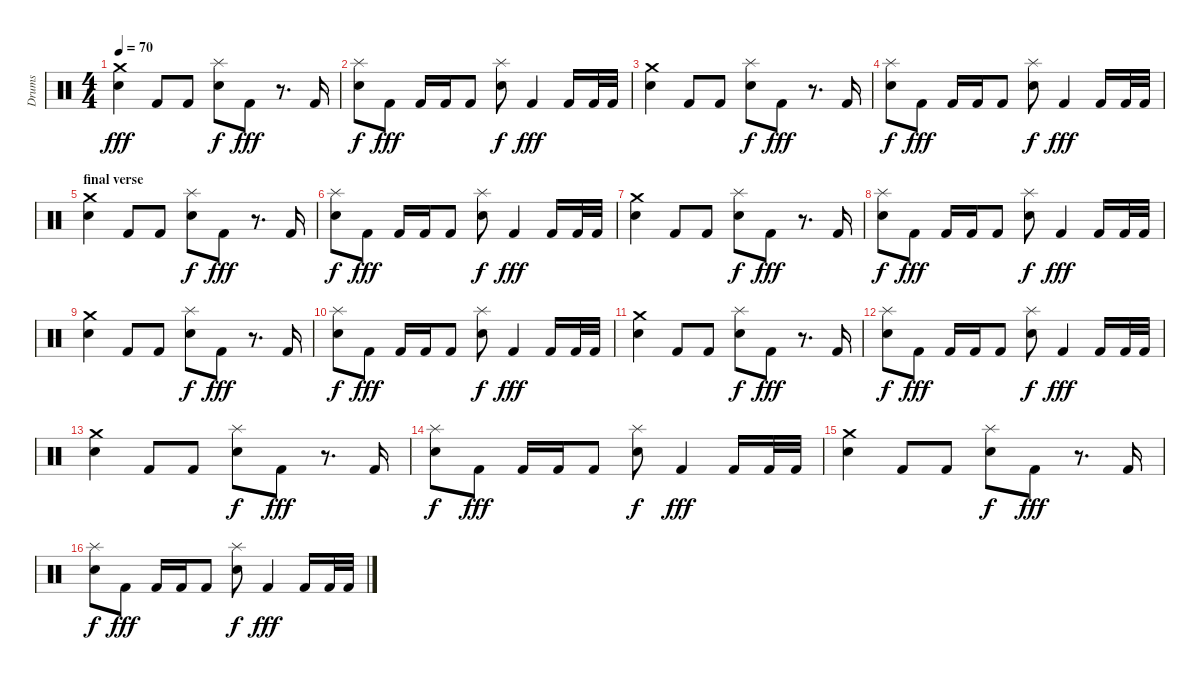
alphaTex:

\track ("Drums" "Drums") {instrument percussion}
\staff {score}
\articulation defaults
\ts (4 4)
\tempo 70
\clef neutral
\ks c
("Electric Snare (hit)" "Crash medium (hit)").4{dy fff} "Kick (hit) 2".8 "Kick (hit) 2".8 ("Electric Snare (hit)" "Splash (hit)").8{dy f} "Kick (hit) 2".8{dy fff} r.8{d} "Kick (hit) 2".16 |
("Splash (hit)" "Electric Snare (hit)").8{dy f} "Kick (hit) 2".8{dy fff} "Kick (hit) 2".16 "Kick (hit) 2".16 "Kick (hit) 2".8 ("Splash (hit)" "Electric Snare (hit)").8{dy f} "Kick (hit) 2".4{dy fff} "Kick (hit) 2".16 "Kick (hit) 2".32 "Kick (hit) 2".32 |
("Electric Snare (hit)" "Crash medium (hit)").4 "Kick (hit) 2".8 "Kick (hit) 2".8 ("Electric Snare (hit)" "Splash (hit)").8{dy f} "Kick (hit) 2".8{dy fff} r.8{d} "Kick (hit) 2".16 |
("Splash (hit)" "Electric Snare (hit)").8{dy f} "Kick (hit) 2".8{dy fff} "Kick (hit) 2".16 "Kick (hit) 2".16 "Kick (hit) 2".8 ("Splash (hit)" "Electric Snare (hit)").8{dy f} "Kick (hit) 2".4{dy fff} "Kick (hit) 2".16 "Kick (hit) 2".32 "Kick (hit) 2".32 |
\section ("" "final verse")
("Electric Snare (hit)" "Crash medium (hit)").4 "Kick (hit) 2".8 "Kick (hit) 2".8 ("Electric Snare (hit)" "Splash (hit)").8{dy f} "Kick (hit) 2".8{dy fff} r.8{d} "Kick (hit) 2".16 |
("Splash (hit)" "Electric Snare (hit)").8{dy f} "Kick (hit) 2".8{dy fff} "Kick (hit) 2".16 "Kick (hit) 2".16 "Kick (hit) 2".8 ("Splash (hit)" "Electric Snare (hit)").8{dy f} "Kick (hit) 2".4{dy fff} "Kick (hit) 2".16 "Kick (hit) 2".32 "Kick (hit) 2".32 |
("Electric Snare (hit)" "Crash medium (hit)").4 "Kick (hit) 2".8 "Kick (hit) 2".8 ("Electric Snare (hit)" "Splash (hit)").8{dy f} "Kick (hit) 2".8{dy fff} r.8{d} "Kick (hit) 2".16 |
("Splash (hit)" "Electric Snare (hit)").8{dy f} "Kick (hit) 2".8{dy fff} "Kick (hit) 2".16 "Kick (hit) 2".16 "Kick (hit) 2".8 ("Splash (hit)" "Electric Snare (hit)").8{dy f} "Kick (hit) 2".4{dy fff} "Kick (hit) 2".16 "Kick (hit) 2".32 "Kick (hit) 2".32 |
("Electric Snare (hit)" "Crash medium (hit)").4 "Kick (hit) 2".8 "Kick (hit) 2".8 ("Electric Snare (hit)" "Splash (hit)").8{dy f} "Kick (hit) 2".8{dy fff} r.8{d} "Kick (hit) 2".16 |
("Splash (hit)" "Electric Snare (hit)").8{dy f} "Kick (hit) 2".8{dy fff} "Kick (hit) 2".16 "Kick (hit) 2".16 "Kick (hit) 2".8 ("Splash (hit)" "Electric Snare (hit)").8{dy f} "Kick (hit) 2".4{dy fff} "Kick (hit) 2".16 "Kick (hit) 2".32 "Kick (hit) 2".32 |
("Electric Snare (hit)" "Crash medium (hit)").4 "Kick (hit) 2".8 "Kick (hit) 2".8 ("Electric Snare (hit)" "Splash (hit)").8{dy f} "Kick (hit) 2".8{dy fff} r.8{d} "Kick (hit) 2".16 |
("Splash (hit)" "Electric Snare (hit)").8{dy f} "Kick (hit) 2".8{dy fff} "Kick (hit) 2".16 "Kick (hit) 2".16 "Kick (hit) 2".8 ("Splash (hit)" "Electric Snare (hit)").8{dy f} "Kick (hit) 2".4{dy fff} "Kick (hit) 2".16 "Kick (hit) 2".32 "Kick (hit) 2".32 |
("Electric Snare (hit)" "Crash medium (hit)").4 "Kick (hit) 2".8 "Kick (hit) 2".8 ("Electric Snare (hit)" "Splash (hit)").8{dy f} "Kick (hit) 2".8{dy fff} r.8{d} "Kick (hit) 2".16 |
("Splash (hit)" "Electric Snare (hit)").8{dy f} "Kick (hit) 2".8{dy fff} "Kick (hit) 2".16 "Kick (hit) 2".16 "Kick (hit) 2".8 ("Splash (hit)" "Electric Snare (hit)").8{dy f} "Kick (hit) 2".4{dy fff} "Kick (hit) 2".16 "Kick (hit) 2".32 "Kick (hit) 2".32 |
("Electric Snare (hit)" "Crash medium (hit)").4 "Kick (hit) 2".8 "Kick (hit) 2".8 ("Electric Snare (hit)" "Splash (hit)").8{dy f} "Kick (hit) 2".8{dy fff} r.8{d} "Kick (hit) 2".16 |
("Splash (hit)" "Electric Snare (hit)").8{dy f} "Kick (hit) 2".8{dy fff} "Kick (hit) 2".16 "Kick (hit) 2".16 "Kick (hit) 2".8 ("Splash (hit)" "Electric Snare (hit)").8{dy f} "Kick (hit) 2".4{dy fff} "Kick (hit) 2".16 "Kick (hit) 2".32 "Kick (hit) 2".32
